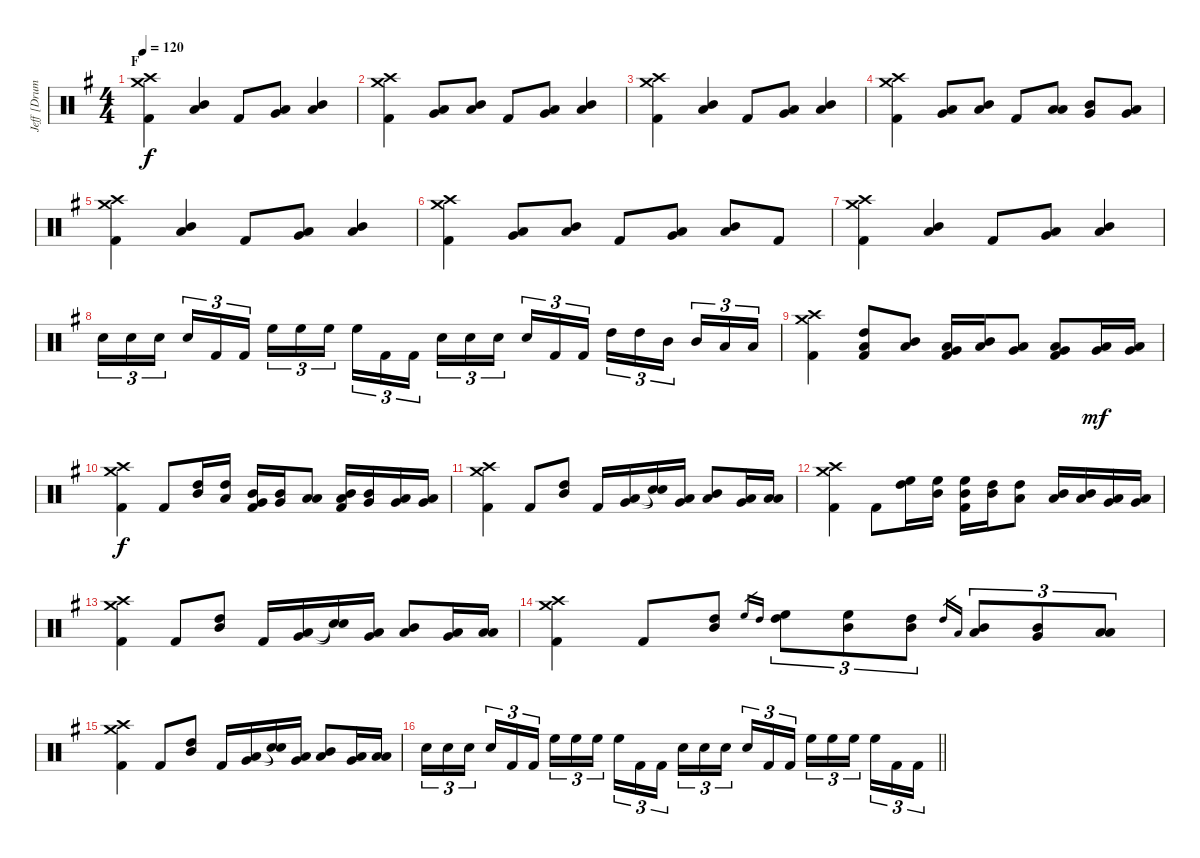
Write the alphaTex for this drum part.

\track ("Jeff [Drums]" "Jeff [Drum") {instrument percussion}
\staff {score}
\articulation defaults
\ts (4 4)
\section ("" "F")
\tempo 120
\clef neutral
\ks g
("Crash high (hit)" "Crash medium (hit)" "Kick (hit) 2").4{dy f} ("Mid Tom (hit)" "Low Tom (hit)").4 "Kick (hit) 2".8 ("Low Tom (hit)" "Very Low Tom (hit)").8 ("Mid Tom (hit)" "Low Tom (hit)").4 |
("Crash high (hit)" "Crash medium (hit)" "Kick (hit) 2").4 ("Low Tom (hit)" "Very Low Tom (hit)").8 ("Mid Tom (hit)" "Low Tom (hit)").8 "Kick (hit) 2".8 ("Low Tom (hit)" "Very Low Tom (hit)").8 ("Mid Tom (hit)" "Low Tom (hit)").4 |
("Crash high (hit)" "Crash medium (hit)" "Kick (hit) 2").4 ("Mid Tom (hit)" "Low Tom (hit)").4 "Kick (hit) 2".8 ("Low Tom (hit)" "Very Low Tom (hit)").8 ("Mid Tom (hit)" "Low Tom (hit)").4 |
("Crash high (hit)" "Crash medium (hit)" "Kick (hit) 2").4 ("Low Tom (hit)" "Very Low Tom (hit)").8 ("Mid Tom (hit)" "Low Tom (hit)").8 "Kick (hit) 2".8 ("Low Tom (hit)" "Low Floor Tom (hit)").8 ("Mid Tom (hit)" "Very Low Tom (hit)").8 ("Low Tom (hit)" "Very Low Tom (hit)").8 |
("Crash high (hit)" "Crash medium (hit)" "Kick (hit) 2").4 ("Mid Tom (hit)" "Low Tom (hit)").4 "Kick (hit) 2".8 ("Low Tom (hit)" "Very Low Tom (hit)").8 ("Mid Tom (hit)" "Low Tom (hit)").4 |
("Crash high (hit)" "Crash medium (hit)" "Kick (hit) 2").4 ("Low Tom (hit)" "Very Low Tom (hit)").8 ("Mid Tom (hit)" "Low Tom (hit)").8 "Kick (hit) 2".8 ("Low Tom (hit)" "Very Low Tom (hit)").8 ("Mid Tom (hit)" "Low Tom (hit)").8 "Kick (hit) 2".8 |
("Crash high (hit)" "Crash medium (hit)" "Kick (hit) 2").4 ("Mid Tom (hit)" "Low Tom (hit)").4 "Kick (hit) 2".8 ("Low Tom (hit)" "Very Low Tom (hit)").8 ("Mid Tom (hit)" "Low Tom (hit)").4 |
"Electric Snare (hit)".16{tu (3 2)} "Electric Snare (hit)".16{tu (3 2)} "Electric Snare (hit)".16{tu (3 2) beam splitsecondary} "Electric Snare (hit)".16{tu (3 2)} "Kick (hit) 2".16{tu (3 2)} "Kick (hit) 2".16{tu (3 2)} "High Floor Tom (hit)".16{tu (3 2)} "High Floor Tom (hit)".16{tu (3 2)} "High Floor Tom (hit)".16{tu (3 2) beam splitsecondary} "High Floor Tom (hit)".16{tu (3 2)} "Kick (hit) 2".16{tu (3 2)} "Kick (hit) 2".16{tu (3 2)} "Electric Snare (hit)".16{tu (3 2)} "Electric Snare (hit)".16{tu (3 2)} "Electric Snare (hit)".16{tu (3 2) beam splitsecondary} "Electric Snare (hit)".16{tu (3 2)} "Kick (hit) 2".16{tu (3 2)} "Kick (hit) 2".16{tu (3 2)} "High Tom (hit)".16{tu (3 2)} "High Tom (hit)".16{tu (3 2)} "Mid Tom (hit)".16{tu (3 2) beam splitsecondary} "Mid Tom (hit)".16{tu (3 2)} "Low Tom (hit)".16{tu (3 2)} "Low Tom (hit)".16{tu (3 2)} |
("Crash high (hit)" "Crash medium (hit)" "Kick (hit) 2").4 ("High Tom (hit)" "Low Tom (hit)" "Kick (hit) 2").8 ("Mid Tom (hit)" "Low Tom (hit)").8 ("Low Tom (hit)" "Very Low Tom (hit)" "Kick (hit) 2").16 ("Mid Tom (hit)" "Low Tom (hit)").16 ("Low Tom (hit)" "Very Low Tom (hit)").8 ("Low Tom (hit)" "Very Low Tom (hit)" "Kick (hit) 2").8 ("Very Low Tom (hit)" "Low Floor Tom (hit)").16{dy mf} ("Very Low Tom (hit)" "Low Floor Tom (hit)").16 |
("Crash high (hit)" "Crash medium (hit)" "Kick (hit) 2").4{dy f} "Kick (hit) 2".8 ("High Tom (hit)" "Mid Tom (hit)").16 ("High Tom (hit)" "Low Tom (hit)").16 ("Mid Tom (hit)" "Very Low Tom (hit)" "Kick (hit) 2").16 ("Mid Tom (hit)" "Very Low Tom (hit)").16 ("Low Tom (hit)" "Low Floor Tom (hit)").8 ("Mid Tom (hit)" "Low Tom (hit)" "Kick (hit) 2").16 ("Mid Tom (hit)" "Very Low Tom (hit)").16 ("Low Tom (hit)" "Very Low Tom (hit)").16 ("Low Tom (hit)" "Very Low Tom (hit)").16 |
("Crash high (hit)" "Crash medium (hit)" "Kick (hit) 2").4 "Kick (hit) 2".8 ("High Tom (hit)" "Mid Tom (hit)").8 "Kick (hit) 2".16 ("Low Tom (hit)" "Very Low Tom (hit)").16 ("Snare (hit)"{t} "Snare (hit)"{t}).16 ("Low Tom (hit)" "Very Low Tom (hit)").16 ("Mid Tom (hit)" "Low Tom (hit)").8 ("Low Tom (hit)" "Very Low Tom (hit)").16 ("Low Tom (hit)" "Low Floor Tom (hit)").16 |
("Crash high (hit)" "Crash medium (hit)" "Kick (hit) 2").4 "Kick (hit) 2".8 ("High Floor Tom (hit)" "High Tom (hit)").16 ("High Floor Tom (hit)" "Mid Tom (hit)").16 ("High Floor Tom (hit)" "Mid Tom (hit)" "Kick (hit) 2").16 ("High Tom (hit)" "Mid Tom (hit)").16 ("High Tom (hit)" "Low Tom (hit)").8 ("Mid Tom (hit)" "Low Tom (hit)").16 ("Mid Tom (hit)" "Low Tom (hit)").16 ("Low Tom (hit)" "Very Low Tom (hit)").16 ("Low Tom (hit)" "Very Low Tom (hit)").16 |
("Crash high (hit)" "Crash medium (hit)" "Kick (hit) 2").4 "Kick (hit) 2".8 ("High Tom (hit)" "Mid Tom (hit)").8 "Kick (hit) 2".16 ("Low Tom (hit)" "Very Low Tom (hit)").16 ("Snare (hit)"{t} "Snare (hit)"{t}).16 ("Low Tom (hit)" "Very Low Tom (hit)").16 ("Mid Tom (hit)" "Low Tom (hit)").8 ("Low Tom (hit)" "Very Low Tom (hit)").16 ("Low Tom (hit)" "Low Floor Tom (hit)").16 |
("Crash high (hit)" "Crash medium (hit)" "Kick (hit) 2").4 "Kick (hit) 2".8 ("High Tom (hit)" "Mid Tom (hit)").8 "High Floor Tom (hit)".16{gr} "High Tom (hit)".16{gr} ("High Floor Tom (hit)" "High Tom (hit)").8{tu (3 2)} ("High Floor Tom (hit)" "Mid Tom (hit)").8{tu (3 2)} ("High Tom (hit)" "Mid Tom (hit)").8{tu (3 2)} "High Tom (hit)".16{gr} "Low Tom (hit)".16{gr} ("Mid Tom (hit)" "Low Tom (hit)").8{tu (3 2)} ("Mid Tom (hit)" "Very Low Tom (hit)").8{tu (3 2)} ("Low Tom (hit)" "Low Floor Tom (hit)").8{tu (3 2)} |
("Crash high (hit)" "Crash medium (hit)" "Kick (hit) 2").4 "Kick (hit) 2".8 ("High Tom (hit)" "Mid Tom (hit)").8 "Kick (hit) 2".16 ("Low Tom (hit)" "Very Low Tom (hit)").16 ("Snare (hit)"{t} "Snare (hit)"{t}).16 ("Low Tom (hit)" "Very Low Tom (hit)").16 ("Mid Tom (hit)" "Low Tom (hit)").8 ("Low Tom (hit)" "Very Low Tom (hit)").16 ("Low Tom (hit)" "Low Floor Tom (hit)").16 |
\barLineRight lightlight "Electric Snare (hit)".16{tu (3 2)} "Electric Snare (hit)".16{tu (3 2)} "Electric Snare (hit)".16{tu (3 2) beam splitsecondary} "Electric Snare (hit)".16{tu (3 2)} "Kick (hit) 2".16{tu (3 2)} "Kick (hit) 2".16{tu (3 2)} "High Floor Tom (hit)".16{tu (3 2)} "High Floor Tom (hit)".16{tu (3 2)} "High Floor Tom (hit)".16{tu (3 2) beam splitsecondary} "High Floor Tom (hit)".16{tu (3 2)} "Kick (hit) 2".16{tu (3 2)} "Kick (hit) 2".16{tu (3 2)} "Electric Snare (hit)".16{tu (3 2)} "Electric Snare (hit)".16{tu (3 2)} "Electric Snare (hit)".16{tu (3 2) beam splitsecondary} "Electric Snare (hit)".16{tu (3 2)} "Kick (hit) 2".16{tu (3 2)} "Kick (hit) 2".16{tu (3 2)} "High Floor Tom (hit)".16{tu (3 2)} "High Floor Tom (hit)".16{tu (3 2)} "High Floor Tom (hit)".16{tu (3 2) beam splitsecondary} "High Floor Tom (hit)".16{tu (3 2)} "Kick (hit) 2".16{tu (3 2)} "Kick (hit) 2".16{tu (3 2)}
